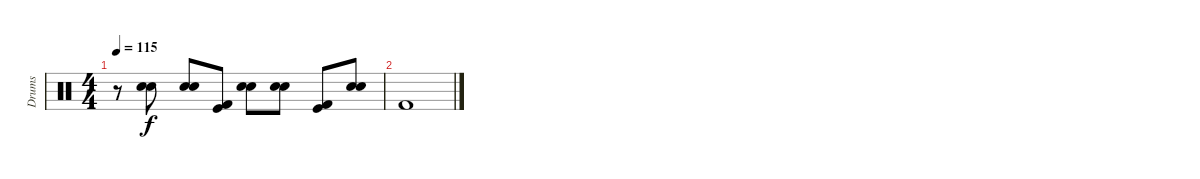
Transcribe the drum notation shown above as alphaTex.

\track ("Drums" "Drums") {instrument percussion}
\staff {score}
\articulation defaults
\ts (4 4)
\tempo 115
\clef neutral
\ks c
r.8{dy f} ("Electric Snare (hit)" "Snare (hit) 2").8{bd 30} ("Electric Snare (hit)" "Snare (hit) 2").8{bd 30} ("Kick (hit)" "Kick (hit) 2").8{bd 30} ("Electric Snare (hit)" "Snare (hit) 2").8{bd 30} ("Electric Snare (hit)" "Snare (hit) 2").8{bd 30} ("Kick (hit)" "Kick (hit) 2").8{bd 30} ("Electric Snare (hit)" "Snare (hit) 2").8{bd 30} |
"Kick (hit) 2".1
